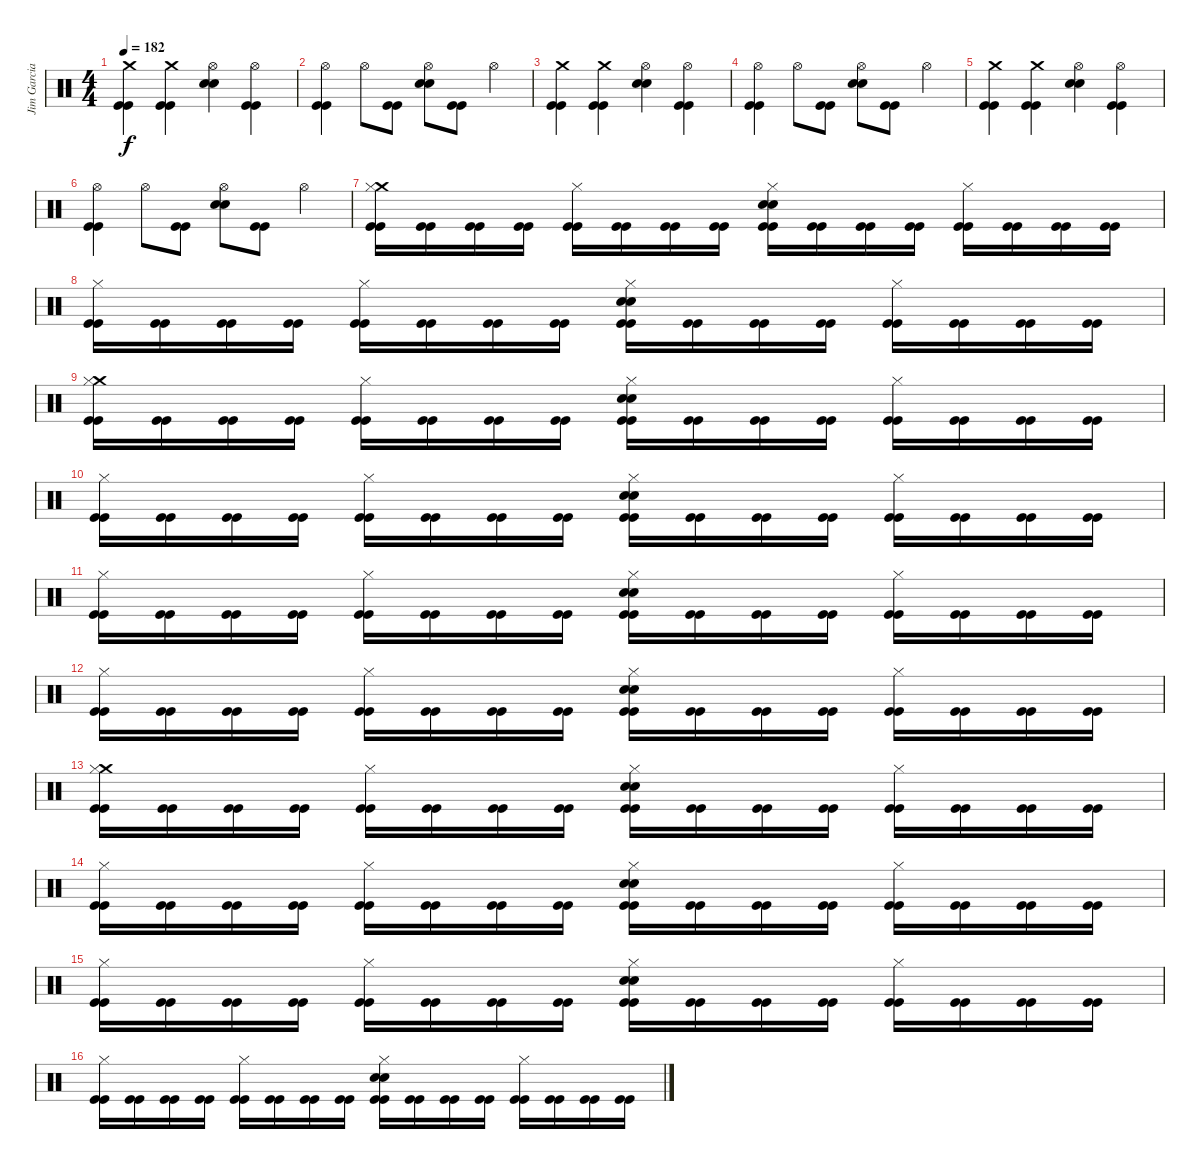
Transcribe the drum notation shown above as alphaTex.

\track ("Jim Garcia" "Jim Garcia") {instrument percussion}
\staff {score}
\articulation defaults
\ts (4 4)
\tempo 182
\clef neutral
\ks c
("Crash medium (hit)" "Kick (hit)" "Kick (hit)").4{dy f} ("Crash medium (hit)" "Kick (hit)" "Kick (hit)").4 ("Snare (hit) 2" "Snare (hit) 2" "Hi-Hat (open)").4 ("Hi-Hat (open)" "Kick (hit)" "Kick (hit)").4 |
("Hi-Hat (open)" "Kick (hit)" "Kick (hit)").4 "Hi-Hat (open)".8 ("Kick (hit)" "Kick (hit)").8 ("Snare (hit) 2" "Snare (hit) 2" "Hi-Hat (open)").8 ("Kick (hit)" "Kick (hit)").8 "Hi-Hat (open)".4 |
("Crash medium (hit)" "Kick (hit)" "Kick (hit)").4 ("Crash medium (hit)" "Kick (hit)" "Kick (hit)").4 ("Snare (hit) 2" "Snare (hit) 2" "Hi-Hat (open)").4 ("Hi-Hat (open)" "Kick (hit)" "Kick (hit)").4 |
("Hi-Hat (open)" "Kick (hit)" "Kick (hit)").4 "Hi-Hat (open)".8 ("Kick (hit)" "Kick (hit)").8 ("Snare (hit) 2" "Snare (hit) 2" "Hi-Hat (open)").8 ("Kick (hit)" "Kick (hit)").8 "Hi-Hat (open)".4 |
("Crash medium (hit)" "Kick (hit)" "Kick (hit)").4 ("Crash medium (hit)" "Kick (hit)" "Kick (hit)").4 ("Snare (hit) 2" "Snare (hit) 2" "Hi-Hat (open)").4 ("Hi-Hat (open)" "Kick (hit)" "Kick (hit)").4 |
("Hi-Hat (open)" "Kick (hit)" "Kick (hit)").4 "Hi-Hat (open)".8 ("Kick (hit)" "Kick (hit)").8 ("Snare (hit) 2" "Snare (hit) 2" "Hi-Hat (open)").8 ("Kick (hit)" "Kick (hit)").8 "Hi-Hat (open)".4 |
("Crash medium (hit)" "Hi-Hat (closed)" "Kick (hit)" "Kick (hit)").16 ("Kick (hit)" "Kick (hit)").16 ("Kick (hit)" "Kick (hit)").16 ("Kick (hit)" "Kick (hit)").16 ("Hi-Hat (closed)" "Kick (hit)" "Kick (hit)").16 ("Kick (hit)" "Kick (hit)").16 ("Kick (hit)" "Kick (hit)").16 ("Kick (hit)" "Kick (hit)").16 ("Snare (hit) 2" "Snare (hit) 2" "Hi-Hat (closed)" "Kick (hit)" "Kick (hit)").16 ("Kick (hit)" "Kick (hit)").16 ("Kick (hit)" "Kick (hit)").16 ("Kick (hit)" "Kick (hit)").16 ("Hi-Hat (closed)" "Kick (hit)" "Kick (hit)").16 ("Kick (hit)" "Kick (hit)").16 ("Kick (hit)" "Kick (hit)").16 ("Kick (hit)" "Kick (hit)").16 |
("Hi-Hat (closed)" "Kick (hit)" "Kick (hit)").16 ("Kick (hit)" "Kick (hit)").16 ("Kick (hit)" "Kick (hit)").16 ("Kick (hit)" "Kick (hit)").16 ("Hi-Hat (closed)" "Kick (hit)" "Kick (hit)").16 ("Kick (hit)" "Kick (hit)").16 ("Kick (hit)" "Kick (hit)").16 ("Kick (hit)" "Kick (hit)").16 ("Snare (hit) 2" "Snare (hit) 2" "Hi-Hat (closed)" "Kick (hit)" "Kick (hit)").16 ("Kick (hit)" "Kick (hit)").16 ("Kick (hit)" "Kick (hit)").16 ("Kick (hit)" "Kick (hit)").16 ("Hi-Hat (closed)" "Kick (hit)" "Kick (hit)").16 ("Kick (hit)" "Kick (hit)").16 ("Kick (hit)" "Kick (hit)").16 ("Kick (hit)" "Kick (hit)").16 |
("Crash medium (hit)" "Hi-Hat (closed)" "Kick (hit)" "Kick (hit)").16 ("Kick (hit)" "Kick (hit)").16 ("Kick (hit)" "Kick (hit)").16 ("Kick (hit)" "Kick (hit)").16 ("Hi-Hat (closed)" "Kick (hit)" "Kick (hit)").16 ("Kick (hit)" "Kick (hit)").16 ("Kick (hit)" "Kick (hit)").16 ("Kick (hit)" "Kick (hit)").16 ("Snare (hit) 2" "Snare (hit) 2" "Hi-Hat (closed)" "Kick (hit)" "Kick (hit)").16 ("Kick (hit)" "Kick (hit)").16 ("Kick (hit)" "Kick (hit)").16 ("Kick (hit)" "Kick (hit)").16 ("Hi-Hat (closed)" "Kick (hit)" "Kick (hit)").16 ("Kick (hit)" "Kick (hit)").16 ("Kick (hit)" "Kick (hit)").16 ("Kick (hit)" "Kick (hit)").16 |
("Hi-Hat (closed)" "Kick (hit)" "Kick (hit)").16 ("Kick (hit)" "Kick (hit)").16 ("Kick (hit)" "Kick (hit)").16 ("Kick (hit)" "Kick (hit)").16 ("Hi-Hat (closed)" "Kick (hit)" "Kick (hit)").16 ("Kick (hit)" "Kick (hit)").16 ("Kick (hit)" "Kick (hit)").16 ("Kick (hit)" "Kick (hit)").16 ("Snare (hit) 2" "Snare (hit) 2" "Hi-Hat (closed)" "Kick (hit)" "Kick (hit)").16 ("Kick (hit)" "Kick (hit)").16 ("Kick (hit)" "Kick (hit)").16 ("Kick (hit)" "Kick (hit)").16 ("Hi-Hat (closed)" "Kick (hit)" "Kick (hit)").16 ("Kick (hit)" "Kick (hit)").16 ("Kick (hit)" "Kick (hit)").16 ("Kick (hit)" "Kick (hit)").16 |
("Hi-Hat (closed)" "Kick (hit)" "Kick (hit)").16 ("Kick (hit)" "Kick (hit)").16 ("Kick (hit)" "Kick (hit)").16 ("Kick (hit)" "Kick (hit)").16 ("Hi-Hat (closed)" "Kick (hit)" "Kick (hit)").16 ("Kick (hit)" "Kick (hit)").16 ("Kick (hit)" "Kick (hit)").16 ("Kick (hit)" "Kick (hit)").16 ("Snare (hit) 2" "Snare (hit) 2" "Hi-Hat (closed)" "Kick (hit)" "Kick (hit)").16 ("Kick (hit)" "Kick (hit)").16 ("Kick (hit)" "Kick (hit)").16 ("Kick (hit)" "Kick (hit)").16 ("Hi-Hat (closed)" "Kick (hit)" "Kick (hit)").16 ("Kick (hit)" "Kick (hit)").16 ("Kick (hit)" "Kick (hit)").16 ("Kick (hit)" "Kick (hit)").16 |
("Hi-Hat (closed)" "Kick (hit)" "Kick (hit)").16 ("Kick (hit)" "Kick (hit)").16 ("Kick (hit)" "Kick (hit)").16 ("Kick (hit)" "Kick (hit)").16 ("Hi-Hat (closed)" "Kick (hit)" "Kick (hit)").16 ("Kick (hit)" "Kick (hit)").16 ("Kick (hit)" "Kick (hit)").16 ("Kick (hit)" "Kick (hit)").16 ("Snare (hit) 2" "Snare (hit) 2" "Hi-Hat (closed)" "Kick (hit)" "Kick (hit)").16 ("Kick (hit)" "Kick (hit)").16 ("Kick (hit)" "Kick (hit)").16 ("Kick (hit)" "Kick (hit)").16 ("Hi-Hat (closed)" "Kick (hit)" "Kick (hit)").16 ("Kick (hit)" "Kick (hit)").16 ("Kick (hit)" "Kick (hit)").16 ("Kick (hit)" "Kick (hit)").16 |
("Crash medium (hit)" "Hi-Hat (closed)" "Kick (hit)" "Kick (hit)").16 ("Kick (hit)" "Kick (hit)").16 ("Kick (hit)" "Kick (hit)").16 ("Kick (hit)" "Kick (hit)").16 ("Hi-Hat (closed)" "Kick (hit)" "Kick (hit)").16 ("Kick (hit)" "Kick (hit)").16 ("Kick (hit)" "Kick (hit)").16 ("Kick (hit)" "Kick (hit)").16 ("Snare (hit) 2" "Snare (hit) 2" "Hi-Hat (closed)" "Kick (hit)" "Kick (hit)").16 ("Kick (hit)" "Kick (hit)").16 ("Kick (hit)" "Kick (hit)").16 ("Kick (hit)" "Kick (hit)").16 ("Hi-Hat (closed)" "Kick (hit)" "Kick (hit)").16 ("Kick (hit)" "Kick (hit)").16 ("Kick (hit)" "Kick (hit)").16 ("Kick (hit)" "Kick (hit)").16 |
("Hi-Hat (closed)" "Kick (hit)" "Kick (hit)").16 ("Kick (hit)" "Kick (hit)").16 ("Kick (hit)" "Kick (hit)").16 ("Kick (hit)" "Kick (hit)").16 ("Hi-Hat (closed)" "Kick (hit)" "Kick (hit)").16 ("Kick (hit)" "Kick (hit)").16 ("Kick (hit)" "Kick (hit)").16 ("Kick (hit)" "Kick (hit)").16 ("Snare (hit) 2" "Snare (hit) 2" "Hi-Hat (closed)" "Kick (hit)" "Kick (hit)").16 ("Kick (hit)" "Kick (hit)").16 ("Kick (hit)" "Kick (hit)").16 ("Kick (hit)" "Kick (hit)").16 ("Hi-Hat (closed)" "Kick (hit)" "Kick (hit)").16 ("Kick (hit)" "Kick (hit)").16 ("Kick (hit)" "Kick (hit)").16 ("Kick (hit)" "Kick (hit)").16 |
("Hi-Hat (closed)" "Kick (hit)" "Kick (hit)").16 ("Kick (hit)" "Kick (hit)").16 ("Kick (hit)" "Kick (hit)").16 ("Kick (hit)" "Kick (hit)").16 ("Hi-Hat (closed)" "Kick (hit)" "Kick (hit)").16 ("Kick (hit)" "Kick (hit)").16 ("Kick (hit)" "Kick (hit)").16 ("Kick (hit)" "Kick (hit)").16 ("Snare (hit) 2" "Snare (hit) 2" "Hi-Hat (closed)" "Kick (hit)" "Kick (hit)").16 ("Kick (hit)" "Kick (hit)").16 ("Kick (hit)" "Kick (hit)").16 ("Kick (hit)" "Kick (hit)").16 ("Hi-Hat (closed)" "Kick (hit)" "Kick (hit)").16 ("Kick (hit)" "Kick (hit)").16 ("Kick (hit)" "Kick (hit)").16 ("Kick (hit)" "Kick (hit)").16 |
("Hi-Hat (closed)" "Kick (hit)" "Kick (hit)").16 ("Kick (hit)" "Kick (hit)").16 ("Kick (hit)" "Kick (hit)").16 ("Kick (hit)" "Kick (hit)").16 ("Hi-Hat (closed)" "Kick (hit)" "Kick (hit)").16 ("Kick (hit)" "Kick (hit)").16 ("Kick (hit)" "Kick (hit)").16 ("Kick (hit)" "Kick (hit)").16 ("Snare (hit) 2" "Snare (hit) 2" "Hi-Hat (closed)" "Kick (hit)" "Kick (hit)").16 ("Kick (hit)" "Kick (hit)").16 ("Kick (hit)" "Kick (hit)").16 ("Kick (hit)" "Kick (hit)").16 ("Hi-Hat (closed)" "Kick (hit)" "Kick (hit)").16 ("Kick (hit)" "Kick (hit)").16 ("Kick (hit)" "Kick (hit)").16 ("Kick (hit)" "Kick (hit)").16
